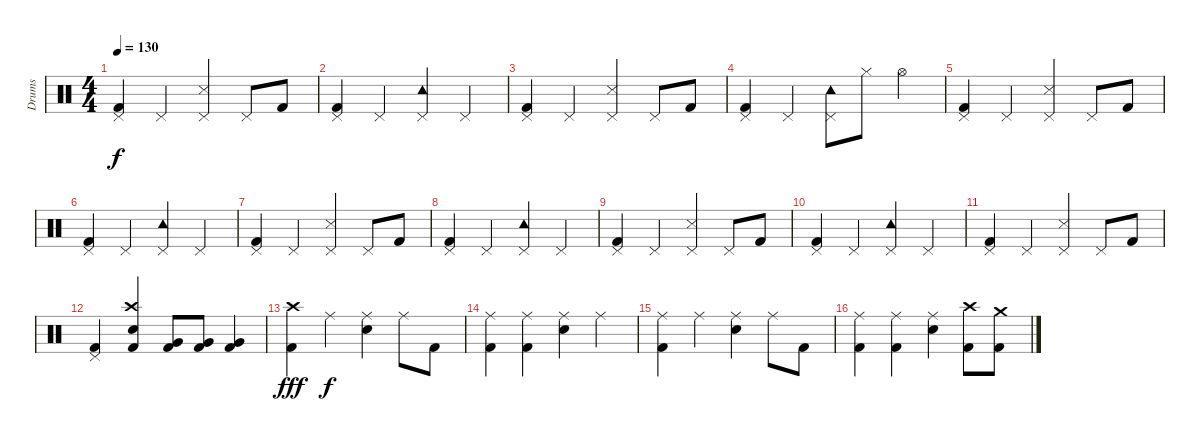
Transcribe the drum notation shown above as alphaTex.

\track ("Drums" "Drums") {instrument percussion}
\staff {score}
\articulation defaults
\ts (4 4)
\tempo 130
\clef neutral
\ks c
("Pedal Hi-Hat (hit)" "Kick (hit) 2").4{dy f} "Pedal Hi-Hat (hit)".4 ("Pedal Hi-Hat (hit)" "Snare (side stick) 3").4 "Pedal Hi-Hat (hit)".8 "Kick (hit) 2".8 |
("Pedal Hi-Hat (hit)" "Kick (hit) 2").4 "Pedal Hi-Hat (hit)".4 ("Tambourine (hit)" "Pedal Hi-Hat (hit)").4 "Pedal Hi-Hat (hit)".4 |
("Pedal Hi-Hat (hit)" "Kick (hit) 2").4 "Pedal Hi-Hat (hit)".4 ("Pedal Hi-Hat (hit)" "Snare (side stick) 3").4 "Pedal Hi-Hat (hit)".8 "Kick (hit) 2".8 |
("Pedal Hi-Hat (hit)" "Kick (hit) 2").4 "Pedal Hi-Hat (hit)".4 ("Tambourine (hit)" "Pedal Hi-Hat (hit)").8 "Hi-Hat (closed)".8 "Hi-Hat (open)".4 |
("Pedal Hi-Hat (hit)" "Kick (hit) 2").4 "Pedal Hi-Hat (hit)".4 ("Pedal Hi-Hat (hit)" "Snare (side stick) 3").4 "Pedal Hi-Hat (hit)".8 "Kick (hit) 2".8 |
("Pedal Hi-Hat (hit)" "Kick (hit) 2").4 "Pedal Hi-Hat (hit)".4 ("Tambourine (hit)" "Pedal Hi-Hat (hit)").4 "Pedal Hi-Hat (hit)".4 |
("Pedal Hi-Hat (hit)" "Kick (hit) 2").4 "Pedal Hi-Hat (hit)".4 ("Pedal Hi-Hat (hit)" "Snare (side stick) 3").4 "Pedal Hi-Hat (hit)".8 "Kick (hit) 2".8 |
("Pedal Hi-Hat (hit)" "Kick (hit) 2").4 "Pedal Hi-Hat (hit)".4 ("Tambourine (hit)" "Pedal Hi-Hat (hit)").4 "Pedal Hi-Hat (hit)".4 |
("Pedal Hi-Hat (hit)" "Kick (hit) 2").4 "Pedal Hi-Hat (hit)".4 ("Pedal Hi-Hat (hit)" "Snare (side stick) 3").4 "Pedal Hi-Hat (hit)".8 "Kick (hit) 2".8 |
("Pedal Hi-Hat (hit)" "Kick (hit) 2").4 "Pedal Hi-Hat (hit)".4 ("Tambourine (hit)" "Pedal Hi-Hat (hit)").4 "Pedal Hi-Hat (hit)".4 |
("Pedal Hi-Hat (hit)" "Kick (hit) 2").4 "Pedal Hi-Hat (hit)".4 ("Pedal Hi-Hat (hit)" "Snare (side stick) 3").4 "Pedal Hi-Hat (hit)".8 "Kick (hit) 2".8 |
("Pedal Hi-Hat (hit)" "Kick (hit) 2").4 ("Crash high (hit)" "Electric Snare (hit)" "Kick (hit) 2").4 ("Very Low Tom (hit)" "Kick (hit) 2").8 ("Very Low Tom (hit)" "Kick (hit) 2").8 ("Very Low Tom (hit)" "Kick (hit) 2").4 |
("Crash high (hit)" "Kick (hit) 2").4{dy fff} "Ride (middle)".4{dy f} ("Ride (middle)" "Electric Snare (hit)").4 "Ride (middle)".8 "Kick (hit) 2".8 |
("Ride (middle)" "Kick (hit) 2").4 ("Ride (middle)" "Kick (hit) 2").4 ("Ride (middle)" "Electric Snare (hit)").4 "Ride (middle)".4 |
("Ride (middle)" "Kick (hit) 2").4 "Ride (middle)".4 ("Ride (middle)" "Electric Snare (hit)").4 "Ride (middle)".8 "Kick (hit) 2".8 |
("Ride (middle)" "Kick (hit) 2").4 ("Ride (middle)" "Kick (hit) 2").4 ("Ride (middle)" "Electric Snare (hit)").4 ("Crash high (hit)" "Kick (hit) 2").8 ("Crash medium (hit)" "Kick (hit) 2").8
